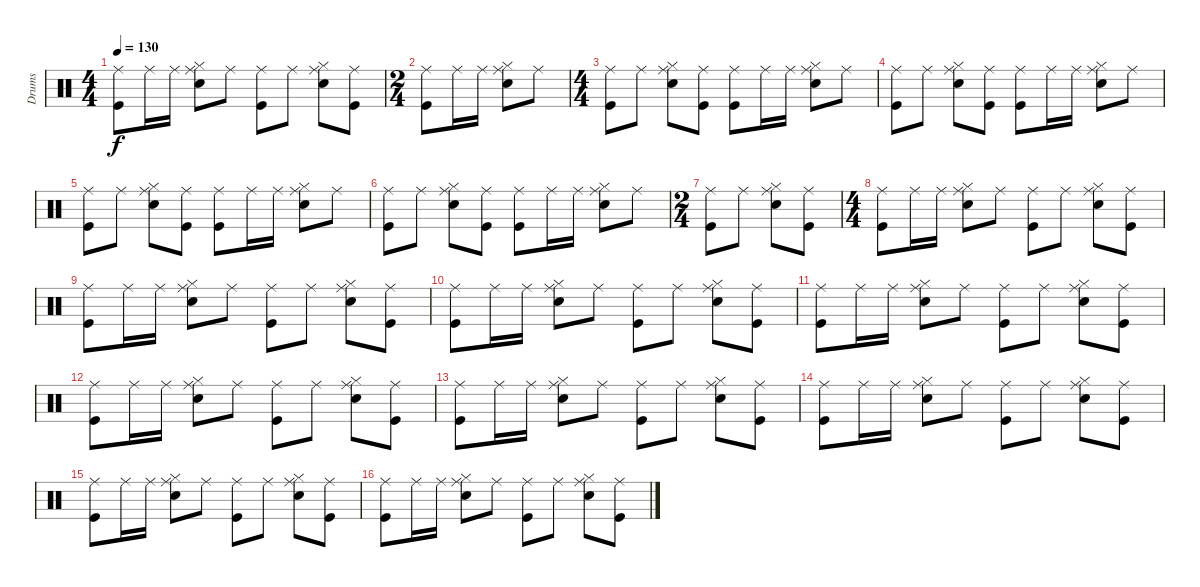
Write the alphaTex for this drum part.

\track ("Drums" "Drums") {instrument percussion}
\staff {score}
\articulation defaults
\ts (4 4)
\tempo 130
\clef neutral
\ks c
("Kick (hit)" "Ride (middle)").8{dy f} "Ride (middle)".16 "Ride (middle)".16 ("Snare (hit) 2" "Hi-Hat (closed)" "Ride (middle)").8 "Ride (middle)".8 ("Kick (hit)" "Ride (middle)").8 "Ride (middle)".8 ("Snare (hit) 2" "Hi-Hat (closed)" "Ride (middle)").8 ("Kick (hit)" "Ride (middle)").8 |
\ts (2 4)
("Kick (hit)" "Ride (middle)").8 "Ride (middle)".16 "Ride (middle)".16 ("Snare (hit) 2" "Hi-Hat (closed)" "Ride (middle)").8 "Ride (middle)".8 |
\ts (4 4)
("Kick (hit)" "Ride (middle)").8 "Ride (middle)".8 ("Snare (hit) 2" "Hi-Hat (closed)" "Ride (middle)").8 ("Kick (hit)" "Ride (middle)").8 ("Kick (hit)" "Ride (middle)").8 "Ride (middle)".16 "Ride (middle)".16 ("Snare (hit) 2" "Hi-Hat (closed)" "Ride (middle)").8 "Ride (middle)".8 |
("Kick (hit)" "Ride (middle)").8 "Ride (middle)".8 ("Snare (hit) 2" "Hi-Hat (closed)" "Ride (middle)").8 ("Kick (hit)" "Ride (middle)").8 ("Kick (hit)" "Ride (middle)").8 "Ride (middle)".16 "Ride (middle)".16 ("Snare (hit) 2" "Hi-Hat (closed)" "Ride (middle)").8 "Ride (middle)".8 |
("Kick (hit)" "Ride (middle)").8 "Ride (middle)".8 ("Snare (hit) 2" "Hi-Hat (closed)" "Ride (middle)").8 ("Kick (hit)" "Ride (middle)").8 ("Kick (hit)" "Ride (middle)").8 "Ride (middle)".16 "Ride (middle)".16 ("Snare (hit) 2" "Hi-Hat (closed)" "Ride (middle)").8 "Ride (middle)".8 |
("Kick (hit)" "Ride (middle)").8 "Ride (middle)".8 ("Snare (hit) 2" "Hi-Hat (closed)" "Ride (middle)").8 ("Kick (hit)" "Ride (middle)").8 ("Kick (hit)" "Ride (middle)").8 "Ride (middle)".16 "Ride (middle)".16 ("Snare (hit) 2" "Hi-Hat (closed)" "Ride (middle)").8 "Ride (middle)".8 |
\ts (2 4)
("Kick (hit)" "Ride (middle)").8 "Ride (middle)".8 ("Snare (hit) 2" "Hi-Hat (closed)" "Ride (middle)").8 ("Kick (hit)" "Ride (middle)").8 |
\ts (4 4)
("Kick (hit)" "Ride (middle)").8 "Ride (middle)".16 "Ride (middle)".16 ("Snare (hit) 2" "Hi-Hat (closed)" "Ride (middle)").8 "Ride (middle)".8 ("Kick (hit)" "Ride (middle)").8 "Ride (middle)".8 ("Snare (hit) 2" "Hi-Hat (closed)" "Ride (middle)").8 ("Kick (hit)" "Ride (middle)").8 |
("Kick (hit)" "Ride (middle)").8 "Ride (middle)".16 "Ride (middle)".16 ("Snare (hit) 2" "Hi-Hat (closed)" "Ride (middle)").8 "Ride (middle)".8 ("Kick (hit)" "Ride (middle)").8 "Ride (middle)".8 ("Snare (hit) 2" "Hi-Hat (closed)" "Ride (middle)").8 ("Kick (hit)" "Ride (middle)").8 |
("Kick (hit)" "Ride (middle)").8 "Ride (middle)".16 "Ride (middle)".16 ("Snare (hit) 2" "Hi-Hat (closed)" "Ride (middle)").8 "Ride (middle)".8 ("Kick (hit)" "Ride (middle)").8 "Ride (middle)".8 ("Snare (hit) 2" "Hi-Hat (closed)" "Ride (middle)").8 ("Kick (hit)" "Ride (middle)").8 |
("Kick (hit)" "Ride (middle)").8 "Ride (middle)".16 "Ride (middle)".16 ("Snare (hit) 2" "Hi-Hat (closed)" "Ride (middle)").8 "Ride (middle)".8 ("Kick (hit)" "Ride (middle)").8 "Ride (middle)".8 ("Snare (hit) 2" "Hi-Hat (closed)" "Ride (middle)").8 ("Kick (hit)" "Ride (middle)").8 |
("Kick (hit)" "Ride (middle)").8 "Ride (middle)".16 "Ride (middle)".16 ("Snare (hit) 2" "Hi-Hat (closed)" "Ride (middle)").8 "Ride (middle)".8 ("Kick (hit)" "Ride (middle)").8 "Ride (middle)".8 ("Snare (hit) 2" "Hi-Hat (closed)" "Ride (middle)").8 ("Kick (hit)" "Ride (middle)").8 |
("Kick (hit)" "Ride (middle)").8 "Ride (middle)".16 "Ride (middle)".16 ("Snare (hit) 2" "Hi-Hat (closed)" "Ride (middle)").8 "Ride (middle)".8 ("Kick (hit)" "Ride (middle)").8 "Ride (middle)".8 ("Snare (hit) 2" "Hi-Hat (closed)" "Ride (middle)").8 ("Kick (hit)" "Ride (middle)").8 |
("Kick (hit)" "Ride (middle)").8 "Ride (middle)".16 "Ride (middle)".16 ("Snare (hit) 2" "Hi-Hat (closed)" "Ride (middle)").8 "Ride (middle)".8 ("Kick (hit)" "Ride (middle)").8 "Ride (middle)".8 ("Snare (hit) 2" "Hi-Hat (closed)" "Ride (middle)").8 ("Kick (hit)" "Ride (middle)").8 |
("Kick (hit)" "Ride (middle)").8 "Ride (middle)".16 "Ride (middle)".16 ("Snare (hit) 2" "Hi-Hat (closed)" "Ride (middle)").8 "Ride (middle)".8 ("Kick (hit)" "Ride (middle)").8 "Ride (middle)".8 ("Snare (hit) 2" "Hi-Hat (closed)" "Ride (middle)").8 ("Kick (hit)" "Ride (middle)").8 |
("Kick (hit)" "Ride (middle)").8 "Ride (middle)".16 "Ride (middle)".16 ("Snare (hit) 2" "Hi-Hat (closed)" "Ride (middle)").8 "Ride (middle)".8 ("Kick (hit)" "Ride (middle)").8 "Ride (middle)".8 ("Snare (hit) 2" "Hi-Hat (closed)" "Ride (middle)").8 ("Kick (hit)" "Ride (middle)").8
